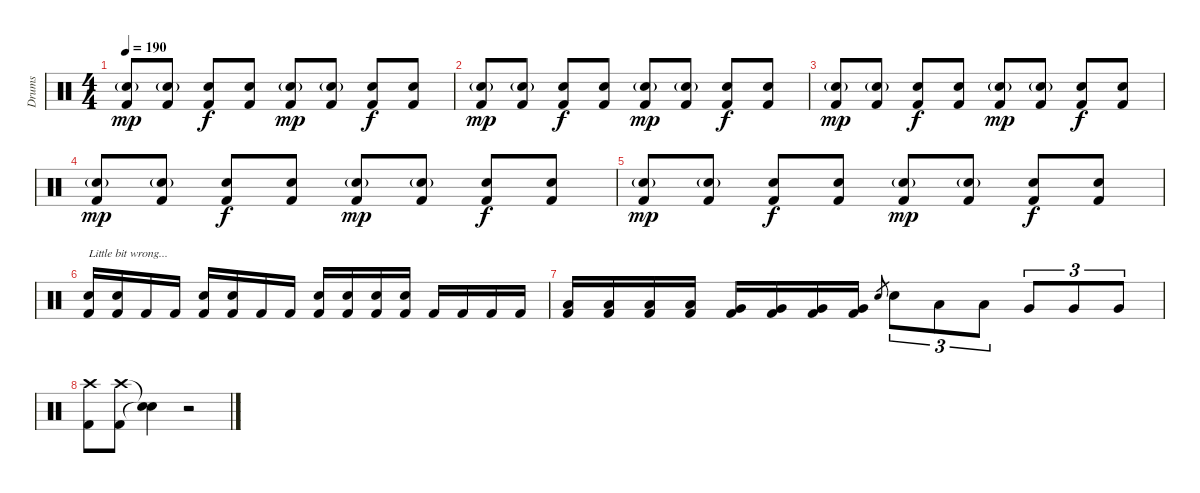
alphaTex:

\track ("Drums" "Drums") {instrument percussion}
\staff {score}
\articulation defaults
\ts (4 4)
\tempo 190
\clef neutral
\ks c
("Electric Snare (hit)"{g} "Kick (hit) 2").8{dy mp} ("Electric Snare (hit)"{g} "Kick (hit) 2").8 ("Electric Snare (hit)" "Kick (hit) 2").8{dy f} ("Electric Snare (hit)" "Kick (hit) 2").8 ("Electric Snare (hit)"{g} "Kick (hit) 2").8{dy mp} ("Electric Snare (hit)"{g} "Kick (hit) 2").8 ("Electric Snare (hit)" "Kick (hit) 2").8{dy f} ("Electric Snare (hit)" "Kick (hit) 2").8 |
("Electric Snare (hit)"{g} "Kick (hit) 2").8{dy mp} ("Electric Snare (hit)"{g} "Kick (hit) 2").8 ("Electric Snare (hit)" "Kick (hit) 2").8{dy f} ("Electric Snare (hit)" "Kick (hit) 2").8 ("Electric Snare (hit)"{g} "Kick (hit) 2").8{dy mp} ("Electric Snare (hit)"{g} "Kick (hit) 2").8 ("Electric Snare (hit)" "Kick (hit) 2").8{dy f} ("Electric Snare (hit)" "Kick (hit) 2").8 |
("Electric Snare (hit)"{g} "Kick (hit) 2").8{dy mp} ("Electric Snare (hit)"{g} "Kick (hit) 2").8 ("Electric Snare (hit)" "Kick (hit) 2").8{dy f} ("Electric Snare (hit)" "Kick (hit) 2").8 ("Electric Snare (hit)"{g} "Kick (hit) 2").8{dy mp} ("Electric Snare (hit)"{g} "Kick (hit) 2").8 ("Electric Snare (hit)" "Kick (hit) 2").8{dy f} ("Electric Snare (hit)" "Kick (hit) 2").8 |
("Electric Snare (hit)"{g} "Kick (hit) 2").8{dy mp} ("Electric Snare (hit)"{g} "Kick (hit) 2").8 ("Electric Snare (hit)" "Kick (hit) 2").8{dy f} ("Electric Snare (hit)" "Kick (hit) 2").8 ("Electric Snare (hit)"{g} "Kick (hit) 2").8{dy mp} ("Electric Snare (hit)"{g} "Kick (hit) 2").8 ("Electric Snare (hit)" "Kick (hit) 2").8{dy f} ("Electric Snare (hit)" "Kick (hit) 2").8 |
("Electric Snare (hit)"{g} "Kick (hit) 2").8{dy mp} ("Electric Snare (hit)"{g} "Kick (hit) 2").8 ("Electric Snare (hit)" "Kick (hit) 2").8{dy f} ("Electric Snare (hit)" "Kick (hit) 2").8 ("Electric Snare (hit)"{g} "Kick (hit) 2").8{dy mp} ("Electric Snare (hit)"{g} "Kick (hit) 2").8 ("Electric Snare (hit)" "Kick (hit) 2").8{dy f} ("Electric Snare (hit)" "Kick (hit) 2").8 |
("Electric Snare (hit)" "Kick (hit) 2").16{txt "Little bit wrong..."} ("Electric Snare (hit)" "Kick (hit) 2").16 "Kick (hit) 2".16 "Kick (hit) 2".16 ("Electric Snare (hit)" "Kick (hit) 2").16 ("Electric Snare (hit)" "Kick (hit) 2").16 "Kick (hit) 2".16 "Kick (hit) 2".16 ("Electric Snare (hit)" "Kick (hit) 2").16 ("Electric Snare (hit)" "Kick (hit) 2").16 ("Electric Snare (hit)" "Kick (hit) 2").16 ("Electric Snare (hit)" "Kick (hit) 2").16 "Kick (hit) 2".16 "Kick (hit) 2".16 "Kick (hit) 2".16 "Kick (hit) 2".16 |
("Low Tom (hit)" "Kick (hit) 2").16 ("Low Tom (hit)" "Kick (hit) 2").16 ("Low Tom (hit)" "Kick (hit) 2").16 ("Low Tom (hit)" "Kick (hit) 2").16 ("Very Low Tom (hit)" "Kick (hit) 2").16 ("Very Low Tom (hit)" "Kick (hit) 2").16 ("Very Low Tom (hit)" "Kick (hit) 2").16 ("Very Low Tom (hit)" "Kick (hit) 2").16 "Electric Snare (hit)".8{gr} "Electric Snare (hit)".8{tu (3 2)} "Low Tom (hit)".8{tu (3 2)} "Low Tom (hit)".8{tu (3 2)} "Very Low Tom (hit)".8{tu (3 2)} "Very Low Tom (hit)".8{tu (3 2)} "Very Low Tom (hit)".8{tu (3 2)} |
("Crash high (hit)" "Kick (hit) 2").8 ("Crash high (hit)" "Kick (hit) 2").8 ("Snare (hit)"{t} "Snare (hit)"{t}).4 r.2
